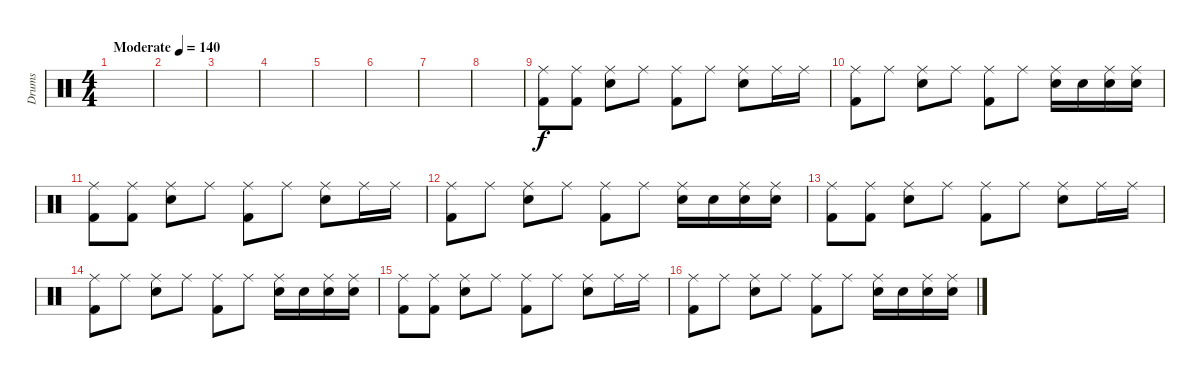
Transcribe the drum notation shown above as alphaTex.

\track ("Drums" "Drums") {instrument percussion}
\staff {score}
\articulation defaults
\ts (4 4)
\tempo (140 "Moderate")
\clef neutral
\ks c
|
|
|
|
|
|
|
|
("Ride (middle)" "Kick (hit) 2").8 ("Ride (middle)" "Kick (hit) 2").8 ("Ride (middle)" "Electric Snare (hit)").8 "Ride (middle)".8 ("Ride (middle)" "Kick (hit) 2").8 "Ride (middle)".8 ("Ride (middle)" "Electric Snare (hit)").8 "Ride (middle)".16 "Ride (middle)".16 |
("Ride (middle)" "Kick (hit) 2").8 "Ride (middle)".8 ("Ride (middle)" "Electric Snare (hit)").8 "Ride (middle)".8 ("Ride (middle)" "Kick (hit) 2").8 "Ride (middle)".8 ("Ride (middle)" "Electric Snare (hit)").16 "Electric Snare (hit)".16 ("Ride (middle)" "Electric Snare (hit)").16 ("Ride (middle)" "Electric Snare (hit)").16 |
("Ride (middle)" "Kick (hit) 2").8 ("Ride (middle)" "Kick (hit) 2").8 ("Ride (middle)" "Electric Snare (hit)").8 "Ride (middle)".8 ("Ride (middle)" "Kick (hit) 2").8 "Ride (middle)".8 ("Ride (middle)" "Electric Snare (hit)").8 "Ride (middle)".16 "Ride (middle)".16 |
("Ride (middle)" "Kick (hit) 2").8 "Ride (middle)".8 ("Ride (middle)" "Electric Snare (hit)").8 "Ride (middle)".8 ("Ride (middle)" "Kick (hit) 2").8 "Ride (middle)".8 ("Ride (middle)" "Electric Snare (hit)").16 "Electric Snare (hit)".16 ("Ride (middle)" "Electric Snare (hit)").16 ("Ride (middle)" "Electric Snare (hit)").16 |
("Ride (middle)" "Kick (hit) 2").8 ("Ride (middle)" "Kick (hit) 2").8 ("Ride (middle)" "Electric Snare (hit)").8 "Ride (middle)".8 ("Ride (middle)" "Kick (hit) 2").8 "Ride (middle)".8 ("Ride (middle)" "Electric Snare (hit)").8 "Ride (middle)".16 "Ride (middle)".16 |
("Ride (middle)" "Kick (hit) 2").8 "Ride (middle)".8 ("Ride (middle)" "Electric Snare (hit)").8 "Ride (middle)".8 ("Ride (middle)" "Kick (hit) 2").8 "Ride (middle)".8 ("Ride (middle)" "Electric Snare (hit)").16 "Electric Snare (hit)".16 ("Ride (middle)" "Electric Snare (hit)").16 ("Ride (middle)" "Electric Snare (hit)").16 |
("Ride (middle)" "Kick (hit) 2").8 ("Ride (middle)" "Kick (hit) 2").8 ("Ride (middle)" "Electric Snare (hit)").8 "Ride (middle)".8 ("Ride (middle)" "Kick (hit) 2").8 "Ride (middle)".8 ("Ride (middle)" "Electric Snare (hit)").8 "Ride (middle)".16 "Ride (middle)".16 |
("Ride (middle)" "Kick (hit) 2").8 "Ride (middle)".8 ("Ride (middle)" "Electric Snare (hit)").8 "Ride (middle)".8 ("Ride (middle)" "Kick (hit) 2").8 "Ride (middle)".8 ("Ride (middle)" "Electric Snare (hit)").16 "Electric Snare (hit)".16 ("Ride (middle)" "Electric Snare (hit)").16 ("Ride (middle)" "Electric Snare (hit)").16
